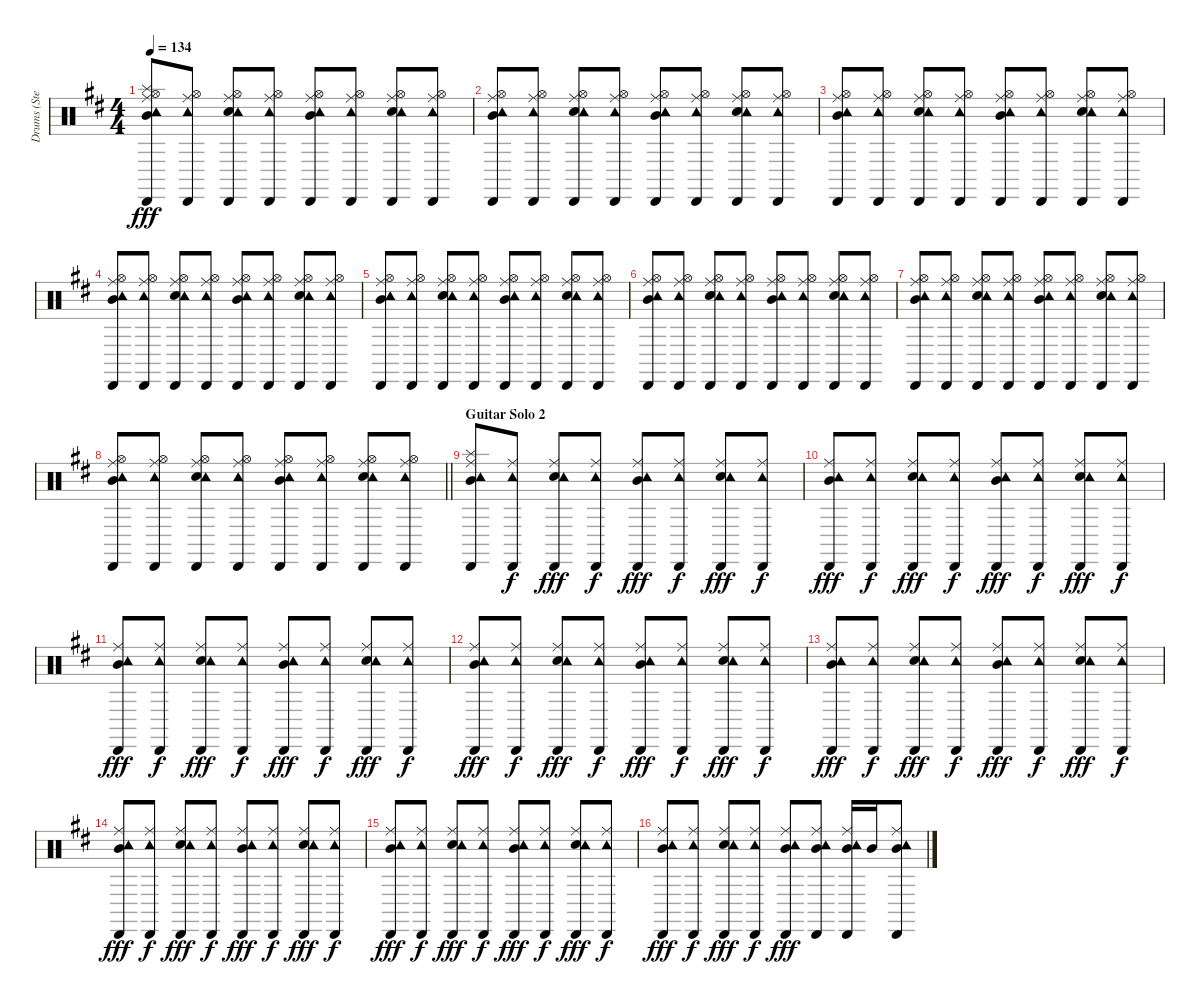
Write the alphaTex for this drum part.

\track ("Drums (Steven)" "Drums (Ste") {instrument percussion}
\staff {score}
\articulation defaults
\ts (4 4)
\tempo 134
\clef neutral
\ks d
("Hi-Hat (open)" "Mid Tom (hit)" "Splash (hit)" "Ride (middle)" "Tambourine (hit)" "Cabasa (hit)").8{dy fff} ("Hi-Hat (open)" "Ride (middle)" "Tambourine (hit)" "Cabasa (hit)").8 ("Electric Snare (hit)" "Hi-Hat (open)" "Ride (middle)" "Tambourine (hit)" "Cabasa (hit)").8 ("Hi-Hat (open)" "Ride (middle)" "Tambourine (hit)" "Cabasa (hit)").8 ("Hi-Hat (open)" "Mid Tom (hit)" "Ride (middle)" "Tambourine (hit)" "Cabasa (hit)").8 ("Hi-Hat (open)" "Ride (middle)" "Tambourine (hit)" "Cabasa (hit)").8 ("Electric Snare (hit)" "Hi-Hat (open)" "Ride (middle)" "Tambourine (hit)" "Cabasa (hit)").8 ("Hi-Hat (open)" "Ride (middle)" "Tambourine (hit)" "Cabasa (hit)").8 |
("Hi-Hat (open)" "Mid Tom (hit)" "Ride (middle)" "Tambourine (hit)" "Cabasa (hit)").8 ("Hi-Hat (open)" "Ride (middle)" "Tambourine (hit)" "Cabasa (hit)").8 ("Electric Snare (hit)" "Hi-Hat (open)" "Ride (middle)" "Tambourine (hit)" "Cabasa (hit)").8 ("Hi-Hat (open)" "Ride (middle)" "Tambourine (hit)" "Cabasa (hit)").8 ("Hi-Hat (open)" "Mid Tom (hit)" "Ride (middle)" "Tambourine (hit)" "Cabasa (hit)").8 ("Hi-Hat (open)" "Ride (middle)" "Tambourine (hit)" "Cabasa (hit)").8 ("Electric Snare (hit)" "Hi-Hat (open)" "Ride (middle)" "Tambourine (hit)" "Cabasa (hit)").8 ("Hi-Hat (open)" "Ride (middle)" "Tambourine (hit)" "Cabasa (hit)").8 |
("Hi-Hat (open)" "Mid Tom (hit)" "Ride (middle)" "Tambourine (hit)" "Cabasa (hit)").8 ("Hi-Hat (open)" "Ride (middle)" "Tambourine (hit)" "Cabasa (hit)").8 ("Electric Snare (hit)" "Hi-Hat (open)" "Ride (middle)" "Tambourine (hit)" "Cabasa (hit)").8 ("Hi-Hat (open)" "Ride (middle)" "Tambourine (hit)" "Cabasa (hit)").8 ("Hi-Hat (open)" "Mid Tom (hit)" "Ride (middle)" "Tambourine (hit)" "Cabasa (hit)").8 ("Hi-Hat (open)" "Ride (middle)" "Tambourine (hit)" "Cabasa (hit)").8 ("Electric Snare (hit)" "Hi-Hat (open)" "Ride (middle)" "Tambourine (hit)" "Cabasa (hit)").8 ("Hi-Hat (open)" "Ride (middle)" "Tambourine (hit)" "Cabasa (hit)").8 |
("Hi-Hat (open)" "Mid Tom (hit)" "Ride (middle)" "Tambourine (hit)" "Cabasa (hit)").8 ("Hi-Hat (open)" "Ride (middle)" "Tambourine (hit)" "Cabasa (hit)").8 ("Electric Snare (hit)" "Hi-Hat (open)" "Ride (middle)" "Tambourine (hit)" "Cabasa (hit)").8 ("Hi-Hat (open)" "Ride (middle)" "Tambourine (hit)" "Cabasa (hit)").8 ("Hi-Hat (open)" "Mid Tom (hit)" "Ride (middle)" "Tambourine (hit)" "Cabasa (hit)").8 ("Hi-Hat (open)" "Ride (middle)" "Tambourine (hit)" "Cabasa (hit)").8 ("Electric Snare (hit)" "Hi-Hat (open)" "Ride (middle)" "Tambourine (hit)" "Cabasa (hit)").8 ("Hi-Hat (open)" "Ride (middle)" "Tambourine (hit)" "Cabasa (hit)").8 |
("Hi-Hat (open)" "Mid Tom (hit)" "Ride (middle)" "Tambourine (hit)" "Cabasa (hit)").8 ("Hi-Hat (open)" "Ride (middle)" "Tambourine (hit)" "Cabasa (hit)").8 ("Electric Snare (hit)" "Hi-Hat (open)" "Ride (middle)" "Tambourine (hit)" "Cabasa (hit)").8 ("Hi-Hat (open)" "Ride (middle)" "Tambourine (hit)" "Cabasa (hit)").8 ("Hi-Hat (open)" "Mid Tom (hit)" "Ride (middle)" "Tambourine (hit)" "Cabasa (hit)").8 ("Hi-Hat (open)" "Ride (middle)" "Tambourine (hit)" "Cabasa (hit)").8 ("Electric Snare (hit)" "Hi-Hat (open)" "Ride (middle)" "Tambourine (hit)" "Cabasa (hit)").8 ("Hi-Hat (open)" "Ride (middle)" "Tambourine (hit)" "Cabasa (hit)").8 |
("Hi-Hat (open)" "Mid Tom (hit)" "Ride (middle)" "Tambourine (hit)" "Cabasa (hit)").8 ("Hi-Hat (open)" "Ride (middle)" "Tambourine (hit)" "Cabasa (hit)").8 ("Electric Snare (hit)" "Hi-Hat (open)" "Ride (middle)" "Tambourine (hit)" "Cabasa (hit)").8 ("Hi-Hat (open)" "Ride (middle)" "Tambourine (hit)" "Cabasa (hit)").8 ("Hi-Hat (open)" "Mid Tom (hit)" "Ride (middle)" "Tambourine (hit)" "Cabasa (hit)").8 ("Hi-Hat (open)" "Ride (middle)" "Tambourine (hit)" "Cabasa (hit)").8 ("Electric Snare (hit)" "Hi-Hat (open)" "Ride (middle)" "Tambourine (hit)" "Cabasa (hit)").8 ("Hi-Hat (open)" "Ride (middle)" "Tambourine (hit)" "Cabasa (hit)").8 |
("Hi-Hat (open)" "Mid Tom (hit)" "Ride (middle)" "Tambourine (hit)" "Cabasa (hit)").8 ("Hi-Hat (open)" "Ride (middle)" "Tambourine (hit)" "Cabasa (hit)").8 ("Electric Snare (hit)" "Hi-Hat (open)" "Ride (middle)" "Tambourine (hit)" "Cabasa (hit)").8 ("Hi-Hat (open)" "Ride (middle)" "Tambourine (hit)" "Cabasa (hit)").8 ("Hi-Hat (open)" "Mid Tom (hit)" "Ride (middle)" "Tambourine (hit)" "Cabasa (hit)").8 ("Hi-Hat (open)" "Ride (middle)" "Tambourine (hit)" "Cabasa (hit)").8 ("Electric Snare (hit)" "Hi-Hat (open)" "Ride (middle)" "Tambourine (hit)" "Cabasa (hit)").8 ("Hi-Hat (open)" "Ride (middle)" "Tambourine (hit)" "Cabasa (hit)").8 |
\barLineRight lightlight
("Hi-Hat (open)" "Mid Tom (hit)" "Ride (middle)" "Tambourine (hit)" "Cabasa (hit)").8 ("Hi-Hat (open)" "Ride (middle)" "Tambourine (hit)" "Cabasa (hit)").8 ("Electric Snare (hit)" "Hi-Hat (open)" "Ride (middle)" "Tambourine (hit)" "Cabasa (hit)").8 ("Hi-Hat (open)" "Ride (middle)" "Tambourine (hit)" "Cabasa (hit)").8 ("Hi-Hat (open)" "Mid Tom (hit)" "Ride (middle)" "Tambourine (hit)" "Cabasa (hit)").8 ("Hi-Hat (open)" "Ride (middle)" "Tambourine (hit)" "Cabasa (hit)").8 ("Electric Snare (hit)" "Hi-Hat (open)" "Ride (middle)" "Tambourine (hit)" "Cabasa (hit)").8 ("Hi-Hat (open)" "Ride (middle)" "Tambourine (hit)" "Cabasa (hit)").8 |
\section ("" "Guitar Solo 2")
("Mid Tom (hit)" "Splash (hit)" "Ride (middle)" "Tambourine (hit)" "Cabasa (hit)").8 ("Ride (middle)" "Tambourine (hit)" "Cabasa (hit)").8{dy f} ("Electric Snare (hit)" "Ride (middle)" "Tambourine (hit)" "Cabasa (hit)").8{dy fff} ("Ride (middle)" "Tambourine (hit)" "Cabasa (hit)").8{dy f} ("Mid Tom (hit)" "Ride (middle)" "Tambourine (hit)" "Cabasa (hit)").8{dy fff} ("Ride (middle)" "Tambourine (hit)" "Cabasa (hit)").8{dy f} ("Electric Snare (hit)" "Ride (middle)" "Tambourine (hit)" "Cabasa (hit)").8{dy fff} ("Ride (middle)" "Tambourine (hit)" "Cabasa (hit)").8{dy f} |
("Mid Tom (hit)" "Ride (middle)" "Tambourine (hit)" "Cabasa (hit)").8{dy fff} ("Ride (middle)" "Tambourine (hit)" "Cabasa (hit)").8{dy f} ("Electric Snare (hit)" "Ride (middle)" "Tambourine (hit)" "Cabasa (hit)").8{dy fff} ("Ride (middle)" "Tambourine (hit)" "Cabasa (hit)").8{dy f} ("Mid Tom (hit)" "Ride (middle)" "Tambourine (hit)" "Cabasa (hit)").8{dy fff} ("Ride (middle)" "Tambourine (hit)" "Cabasa (hit)").8{dy f} ("Electric Snare (hit)" "Ride (middle)" "Tambourine (hit)" "Cabasa (hit)").8{dy fff} ("Ride (middle)" "Tambourine (hit)" "Cabasa (hit)").8{dy f} |
("Mid Tom (hit)" "Ride (middle)" "Tambourine (hit)" "Cabasa (hit)").8{dy fff} ("Ride (middle)" "Tambourine (hit)" "Cabasa (hit)").8{dy f} ("Electric Snare (hit)" "Ride (middle)" "Tambourine (hit)" "Cabasa (hit)").8{dy fff} ("Ride (middle)" "Tambourine (hit)" "Cabasa (hit)").8{dy f} ("Mid Tom (hit)" "Ride (middle)" "Tambourine (hit)" "Cabasa (hit)").8{dy fff} ("Ride (middle)" "Tambourine (hit)" "Cabasa (hit)").8{dy f} ("Electric Snare (hit)" "Ride (middle)" "Tambourine (hit)" "Cabasa (hit)").8{dy fff} ("Ride (middle)" "Tambourine (hit)" "Cabasa (hit)").8{dy f} |
("Mid Tom (hit)" "Ride (middle)" "Tambourine (hit)" "Cabasa (hit)").8{dy fff} ("Ride (middle)" "Tambourine (hit)" "Cabasa (hit)").8{dy f} ("Electric Snare (hit)" "Ride (middle)" "Tambourine (hit)" "Cabasa (hit)").8{dy fff} ("Ride (middle)" "Tambourine (hit)" "Cabasa (hit)").8{dy f} ("Mid Tom (hit)" "Ride (middle)" "Tambourine (hit)" "Cabasa (hit)").8{dy fff} ("Ride (middle)" "Tambourine (hit)" "Cabasa (hit)").8{dy f} ("Electric Snare (hit)" "Ride (middle)" "Tambourine (hit)" "Cabasa (hit)").8{dy fff} ("Ride (middle)" "Tambourine (hit)" "Cabasa (hit)").8{dy f} |
("Mid Tom (hit)" "Ride (middle)" "Tambourine (hit)" "Cabasa (hit)").8{dy fff} ("Ride (middle)" "Tambourine (hit)" "Cabasa (hit)").8{dy f} ("Electric Snare (hit)" "Ride (middle)" "Tambourine (hit)" "Cabasa (hit)").8{dy fff} ("Ride (middle)" "Tambourine (hit)" "Cabasa (hit)").8{dy f} ("Mid Tom (hit)" "Ride (middle)" "Tambourine (hit)" "Cabasa (hit)").8{dy fff} ("Ride (middle)" "Tambourine (hit)" "Cabasa (hit)").8{dy f} ("Electric Snare (hit)" "Ride (middle)" "Tambourine (hit)" "Cabasa (hit)").8{dy fff} ("Ride (middle)" "Tambourine (hit)" "Cabasa (hit)").8{dy f} |
("Mid Tom (hit)" "Ride (middle)" "Tambourine (hit)" "Cabasa (hit)").8{dy fff} ("Ride (middle)" "Tambourine (hit)" "Cabasa (hit)").8{dy f} ("Electric Snare (hit)" "Ride (middle)" "Tambourine (hit)" "Cabasa (hit)").8{dy fff} ("Ride (middle)" "Tambourine (hit)" "Cabasa (hit)").8{dy f} ("Mid Tom (hit)" "Ride (middle)" "Tambourine (hit)" "Cabasa (hit)").8{dy fff} ("Ride (middle)" "Tambourine (hit)" "Cabasa (hit)").8{dy f} ("Electric Snare (hit)" "Ride (middle)" "Tambourine (hit)" "Cabasa (hit)").8{dy fff} ("Ride (middle)" "Tambourine (hit)" "Cabasa (hit)").8{dy f} |
("Mid Tom (hit)" "Ride (middle)" "Tambourine (hit)" "Cabasa (hit)").8{dy fff} ("Ride (middle)" "Tambourine (hit)" "Cabasa (hit)").8{dy f} ("Electric Snare (hit)" "Ride (middle)" "Tambourine (hit)" "Cabasa (hit)").8{dy fff} ("Ride (middle)" "Tambourine (hit)" "Cabasa (hit)").8{dy f} ("Mid Tom (hit)" "Ride (middle)" "Tambourine (hit)" "Cabasa (hit)").8{dy fff} ("Ride (middle)" "Tambourine (hit)" "Cabasa (hit)").8{dy f} ("Electric Snare (hit)" "Ride (middle)" "Tambourine (hit)" "Cabasa (hit)").8{dy fff} ("Ride (middle)" "Tambourine (hit)" "Cabasa (hit)").8{dy f} |
("Mid Tom (hit)" "Ride (middle)" "Tambourine (hit)" "Cabasa (hit)").8{dy fff} ("Ride (middle)" "Tambourine (hit)" "Cabasa (hit)").8{dy f} ("Electric Snare (hit)" "Ride (middle)" "Tambourine (hit)" "Cabasa (hit)").8{dy fff} ("Ride (middle)" "Tambourine (hit)" "Cabasa (hit)").8{dy f} ("Mid Tom (hit)" "Ride (middle)" "Tambourine (hit)" "Cabasa (hit)").8{dy fff} ("Mid Tom (hit)" "Ride (middle)" "Tambourine (hit)" "Cabasa (hit)").8 ("Mid Tom (hit)" "Ride (middle)" "Tambourine (hit)" "Cabasa (hit)").16 "Mid Tom (hit)".16 ("Mid Tom (hit)" "Ride (middle)" "Tambourine (hit)" "Cabasa (hit)").8
